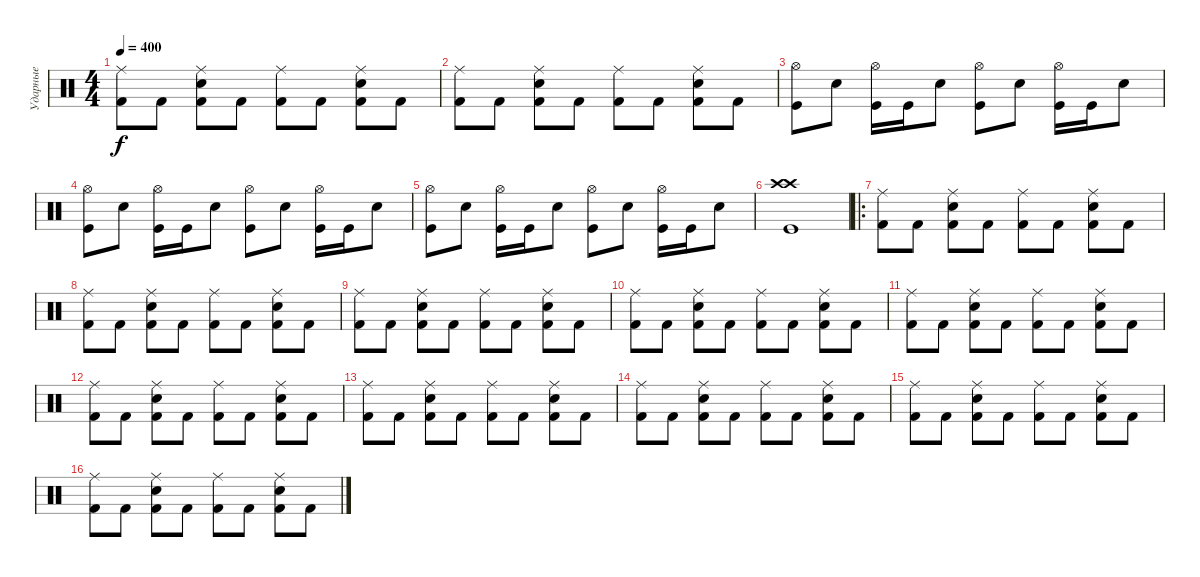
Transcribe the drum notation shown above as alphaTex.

\track ("Ударные" "Ударные") {instrument percussion}
\staff {score}
\articulation defaults
\ts (4 4)
\tempo 400
\clef neutral
\ks c
("Ride (middle)" "Kick (hit) 2").8{dy f} "Kick (hit) 2".8 ("Ride (middle)" "Snare (hit) 2" "Kick (hit) 2").8 "Kick (hit) 2".8 ("Ride (middle)" "Kick (hit) 2").8 "Kick (hit) 2".8 ("Ride (middle)" "Snare (hit) 2" "Kick (hit) 2").8 "Kick (hit) 2".8 |
("Ride (middle)" "Kick (hit) 2").8 "Kick (hit) 2".8 ("Ride (middle)" "Snare (hit) 2" "Kick (hit) 2").8 "Kick (hit) 2".8 ("Ride (middle)" "Kick (hit) 2").8 "Kick (hit) 2".8 ("Ride (middle)" "Snare (hit) 2" "Kick (hit) 2").8 "Kick (hit) 2".8 |
("Hi-Hat (open)" "Kick (hit)").8 "Snare (hit) 2".8 ("Hi-Hat (open)" "Kick (hit)").16 "Kick (hit)".16 "Snare (hit) 2".8 ("Hi-Hat (open)" "Kick (hit)").8 "Snare (hit) 2".8 ("Hi-Hat (open)" "Kick (hit)").16 "Kick (hit)".16 "Snare (hit) 2".8 |
("Hi-Hat (open)" "Kick (hit)").8 "Snare (hit) 2".8 ("Hi-Hat (open)" "Kick (hit)").16 "Kick (hit)".16 "Snare (hit) 2".8 ("Hi-Hat (open)" "Kick (hit)").8 "Snare (hit) 2".8 ("Hi-Hat (open)" "Kick (hit)").16 "Kick (hit)".16 "Snare (hit) 2".8 |
("Hi-Hat (open)" "Kick (hit)").8 "Snare (hit) 2".8 ("Hi-Hat (open)" "Kick (hit)").16 "Kick (hit)".16 "Snare (hit) 2".8 ("Hi-Hat (open)" "Kick (hit)").8 "Snare (hit) 2".8 ("Hi-Hat (open)" "Kick (hit)").16 "Kick (hit)".16 "Snare (hit) 2".8 |
("Crash high (hit)" "Crash high (hit)" "Kick (hit)").1 |
\ro
("Ride (middle)" "Kick (hit) 2").8 "Kick (hit) 2".8 ("Ride (middle)" "Snare (hit) 2" "Kick (hit) 2").8 "Kick (hit) 2".8 ("Ride (middle)" "Kick (hit) 2").8 "Kick (hit) 2".8 ("Ride (middle)" "Snare (hit) 2" "Kick (hit) 2").8 "Kick (hit) 2".8 |
("Ride (middle)" "Kick (hit) 2").8 "Kick (hit) 2".8 ("Ride (middle)" "Snare (hit) 2" "Kick (hit) 2").8 "Kick (hit) 2".8 ("Ride (middle)" "Kick (hit) 2").8 "Kick (hit) 2".8 ("Ride (middle)" "Snare (hit) 2" "Kick (hit) 2").8 "Kick (hit) 2".8 |
("Ride (middle)" "Kick (hit) 2").8 "Kick (hit) 2".8 ("Ride (middle)" "Snare (hit) 2" "Kick (hit) 2").8 "Kick (hit) 2".8 ("Ride (middle)" "Kick (hit) 2").8 "Kick (hit) 2".8 ("Ride (middle)" "Snare (hit) 2" "Kick (hit) 2").8 "Kick (hit) 2".8 |
("Ride (middle)" "Kick (hit) 2").8 "Kick (hit) 2".8 ("Ride (middle)" "Snare (hit) 2" "Kick (hit) 2").8 "Kick (hit) 2".8 ("Ride (middle)" "Kick (hit) 2").8 "Kick (hit) 2".8 ("Ride (middle)" "Snare (hit) 2" "Kick (hit) 2").8 "Kick (hit) 2".8 |
("Ride (middle)" "Kick (hit) 2").8 "Kick (hit) 2".8 ("Ride (middle)" "Snare (hit) 2" "Kick (hit) 2").8 "Kick (hit) 2".8 ("Ride (middle)" "Kick (hit) 2").8 "Kick (hit) 2".8 ("Ride (middle)" "Snare (hit) 2" "Kick (hit) 2").8 "Kick (hit) 2".8 |
("Ride (middle)" "Kick (hit) 2").8 "Kick (hit) 2".8 ("Ride (middle)" "Snare (hit) 2" "Kick (hit) 2").8 "Kick (hit) 2".8 ("Ride (middle)" "Kick (hit) 2").8 "Kick (hit) 2".8 ("Ride (middle)" "Snare (hit) 2" "Kick (hit) 2").8 "Kick (hit) 2".8 |
("Ride (middle)" "Kick (hit) 2").8 "Kick (hit) 2".8 ("Ride (middle)" "Snare (hit) 2" "Kick (hit) 2").8 "Kick (hit) 2".8 ("Ride (middle)" "Kick (hit) 2").8 "Kick (hit) 2".8 ("Ride (middle)" "Snare (hit) 2" "Kick (hit) 2").8 "Kick (hit) 2".8 |
("Ride (middle)" "Kick (hit) 2").8 "Kick (hit) 2".8 ("Ride (middle)" "Snare (hit) 2" "Kick (hit) 2").8 "Kick (hit) 2".8 ("Ride (middle)" "Kick (hit) 2").8 "Kick (hit) 2".8 ("Ride (middle)" "Snare (hit) 2" "Kick (hit) 2").8 "Kick (hit) 2".8 |
("Ride (middle)" "Kick (hit) 2").8 "Kick (hit) 2".8 ("Ride (middle)" "Snare (hit) 2" "Kick (hit) 2").8 "Kick (hit) 2".8 ("Ride (middle)" "Kick (hit) 2").8 "Kick (hit) 2".8 ("Ride (middle)" "Snare (hit) 2" "Kick (hit) 2").8 "Kick (hit) 2".8 |
("Ride (middle)" "Kick (hit) 2").8 "Kick (hit) 2".8 ("Ride (middle)" "Snare (hit) 2" "Kick (hit) 2").8 "Kick (hit) 2".8 ("Ride (middle)" "Kick (hit) 2").8 "Kick (hit) 2".8 ("Ride (middle)" "Snare (hit) 2" "Kick (hit) 2").8 "Kick (hit) 2".8
